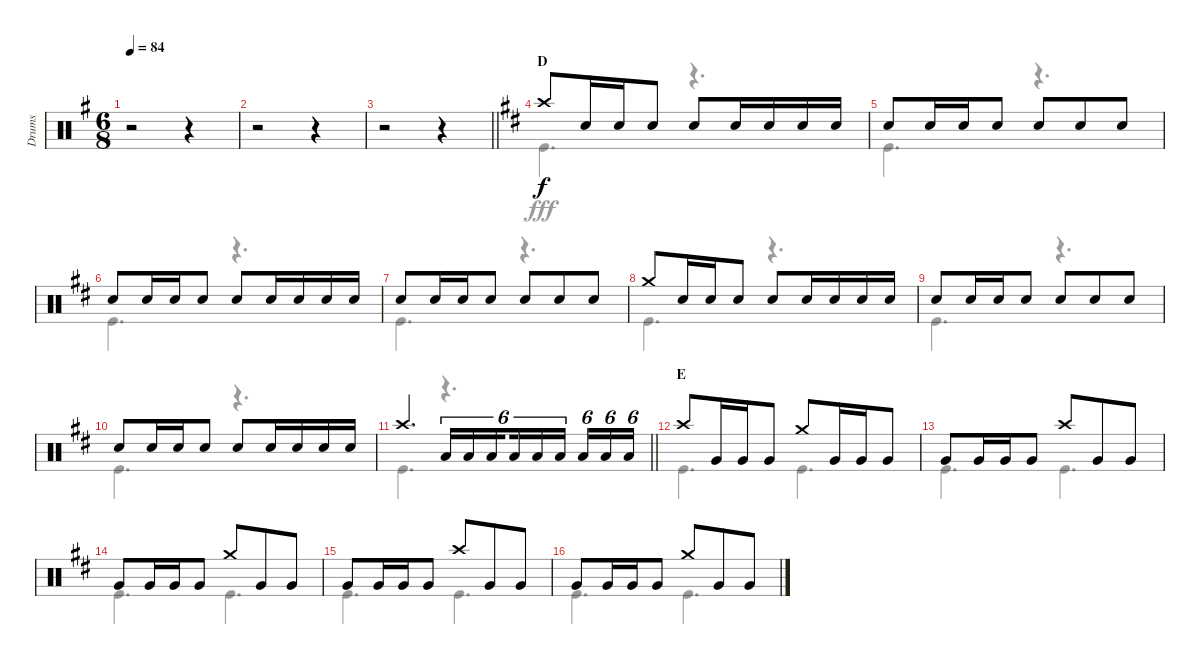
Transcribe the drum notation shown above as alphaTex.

\track ("Drums" "Drums") {instrument percussion}
\staff {score}
\articulation defaults
\voice
\ts (6 8)
\tempo 84
\clef neutral
\ks g
r.2{dy f} r.4 |
r.2 r.4 |
\barLineRight lightlight
r.2 r.4 |
\section ("" "D")
\ks d "Crash high (hit)".8 "Snare (hit) 2".16 "Snare (hit) 2".16 "Snare (hit) 2".8 "Snare (hit) 2".8 "Snare (hit) 2".16 "Snare (hit) 2".16 "Snare (hit) 2".16 "Snare (hit) 2".16
|
"Snare (hit) 2".8 "Snare (hit) 2".16 "Snare (hit) 2".16 "Snare (hit) 2".8 "Snare (hit) 2".8 "Snare (hit) 2".8 "Snare (hit) 2".8 |
"Snare (hit) 2".8 "Snare (hit) 2".16 "Snare (hit) 2".16 "Snare (hit) 2".8 "Snare (hit) 2".8 "Snare (hit) 2".16 "Snare (hit) 2".16 "Snare (hit) 2".16 "Snare (hit) 2".16 |
"Snare (hit) 2".8 "Snare (hit) 2".16 "Snare (hit) 2".16 "Snare (hit) 2".8 "Snare (hit) 2".8 "Snare (hit) 2".8 "Snare (hit) 2".8 |
"Crash medium (hit)".8 "Snare (hit) 2".16 "Snare (hit) 2".16 "Snare (hit) 2".8 "Snare (hit) 2".8 "Snare (hit) 2".16 "Snare (hit) 2".16 "Snare (hit) 2".16 "Snare (hit) 2".16 |
"Snare (hit) 2".8 "Snare (hit) 2".16 "Snare (hit) 2".16 "Snare (hit) 2".8 "Snare (hit) 2".8 "Snare (hit) 2".8 "Snare (hit) 2".8 |
"Snare (hit) 2".8 "Snare (hit) 2".16 "Snare (hit) 2".16 "Snare (hit) 2".8 "Snare (hit) 2".8 "Snare (hit) 2".16 "Snare (hit) 2".16 "Snare (hit) 2".16 "Snare (hit) 2".16 |
\barLineRight lightlight "Crash high (hit)".4{d} "Low Tom (hit)".16{tu (6 4)} "Low Tom (hit)".16{tu (6 4)} "Low Tom (hit)".16{tu (6 4) beam splitsecondary} "Low Tom (hit)".16{tu (6 4)} "Low Tom (hit)".16{tu (6 4)} "Low Tom (hit)".16{tu (6 4) beam splitsecondary} "Low Tom (hit)".16{tu (6 4)} "Low Tom (hit)".16{tu (6 4)} "Low Tom (hit)".16{tu (6 4)}
|
\section ("" "E")
"Crash high (hit)".8 "Very Low Tom (hit)".16 "Very Low Tom (hit)".16 "Very Low Tom (hit)".8 "Crash medium (hit)".8 "Very Low Tom (hit)".16 "Very Low Tom (hit)".16 "Very Low Tom (hit)".8 |
"Very Low Tom (hit)".8 "Very Low Tom (hit)".16 "Very Low Tom (hit)".16 "Very Low Tom (hit)".8 "Crash high (hit)".8 "Very Low Tom (hit)".8 "Very Low Tom (hit)".8 |
"Very Low Tom (hit)".8 "Very Low Tom (hit)".16 "Very Low Tom (hit)".16 "Very Low Tom (hit)".8 "Crash medium (hit)".8 "Very Low Tom (hit)".8 "Very Low Tom (hit)".8 |
"Very Low Tom (hit)".8 "Very Low Tom (hit)".16 "Very Low Tom (hit)".16 "Very Low Tom (hit)".8 "Crash high (hit)".8 "Very Low Tom (hit)".8 "Very Low Tom (hit)".8 |
"Very Low Tom (hit)".8 "Very Low Tom (hit)".16 "Very Low Tom (hit)".16 "Very Low Tom (hit)".8 "Crash medium (hit)".8 "Very Low Tom (hit)".8 "Very Low Tom (hit)".8
\voice
\clef neutral
\ottava regular
\simile none
\ks g
r.2{dy fff} r.4 |
r.2 r.4 |
\barLineRight lightlight
r.2 r.4 |
\ks d "Kick (hit)".4{d}
r.4{d} |
"Kick (hit)".4{d} r.4{d} |
"Kick (hit)".4{d} r.4{d} |
"Kick (hit)".4{d} r.4{d} |
"Kick (hit)".4{d} r.4{d} |
"Kick (hit)".4{d} r.4{d} |
"Kick (hit)".4{d} r.4{d} |
\barLineRight lightlight "Kick (hit)".4{d}
r.4{d} |
"Kick (hit)".4{d} "Kick (hit)".4{d} |
"Kick (hit)".4{d} "Kick (hit)".4{d} |
"Kick (hit)".4{d} "Kick (hit)".4{d} |
"Kick (hit)".4{d} "Kick (hit)".4{d} |
"Kick (hit)".4{d} "Kick (hit)".4{d}
